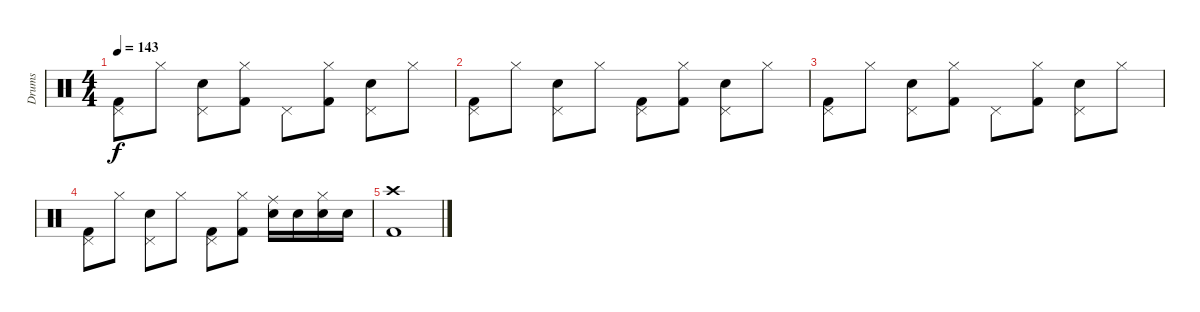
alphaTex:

\track ("Drums" "Drums") {instrument percussion}
\staff {score}
\articulation defaults
\ts (4 4)
\tempo 143
\clef neutral
\ks c
("Kick (hit) 2" "Pedal Hi-Hat (hit)").8{dy f} "Hi-Hat (closed)".8 ("Electric Snare (hit)" "Pedal Hi-Hat (hit)").8 ("Kick (hit) 2" "Hi-Hat (closed)").8 "Pedal Hi-Hat (hit)".8 ("Kick (hit) 2" "Hi-Hat (closed)").8 ("Electric Snare (hit)" "Pedal Hi-Hat (hit)").8 "Hi-Hat (closed)".8 |
("Kick (hit) 2" "Pedal Hi-Hat (hit)").8 "Hi-Hat (closed)".8 ("Electric Snare (hit)" "Pedal Hi-Hat (hit)").8 "Hi-Hat (closed)".8 ("Kick (hit) 2" "Pedal Hi-Hat (hit)").8 ("Kick (hit) 2" "Hi-Hat (closed)").8 ("Electric Snare (hit)" "Pedal Hi-Hat (hit)").8 "Hi-Hat (closed)".8 |
("Kick (hit) 2" "Pedal Hi-Hat (hit)").8 "Hi-Hat (closed)".8 ("Electric Snare (hit)" "Pedal Hi-Hat (hit)").8 ("Kick (hit) 2" "Hi-Hat (closed)").8 "Pedal Hi-Hat (hit)".8 ("Kick (hit) 2" "Hi-Hat (closed)").8 ("Electric Snare (hit)" "Pedal Hi-Hat (hit)").8 "Hi-Hat (closed)".8 |
("Kick (hit) 2" "Pedal Hi-Hat (hit)").8 "Hi-Hat (closed)".8 ("Electric Snare (hit)" "Pedal Hi-Hat (hit)").8 "Hi-Hat (closed)".8 ("Kick (hit) 2" "Pedal Hi-Hat (hit)").8 ("Kick (hit) 2" "Hi-Hat (closed)").8 ("Electric Snare (hit)" "Ride (middle)").16 "Snare (hit) 2".16 ("Electric Snare (hit)" "Hi-Hat (closed)").16 "Snare (hit) 2".16 |
("Kick (hit) 2" "Crash high (hit)").1
